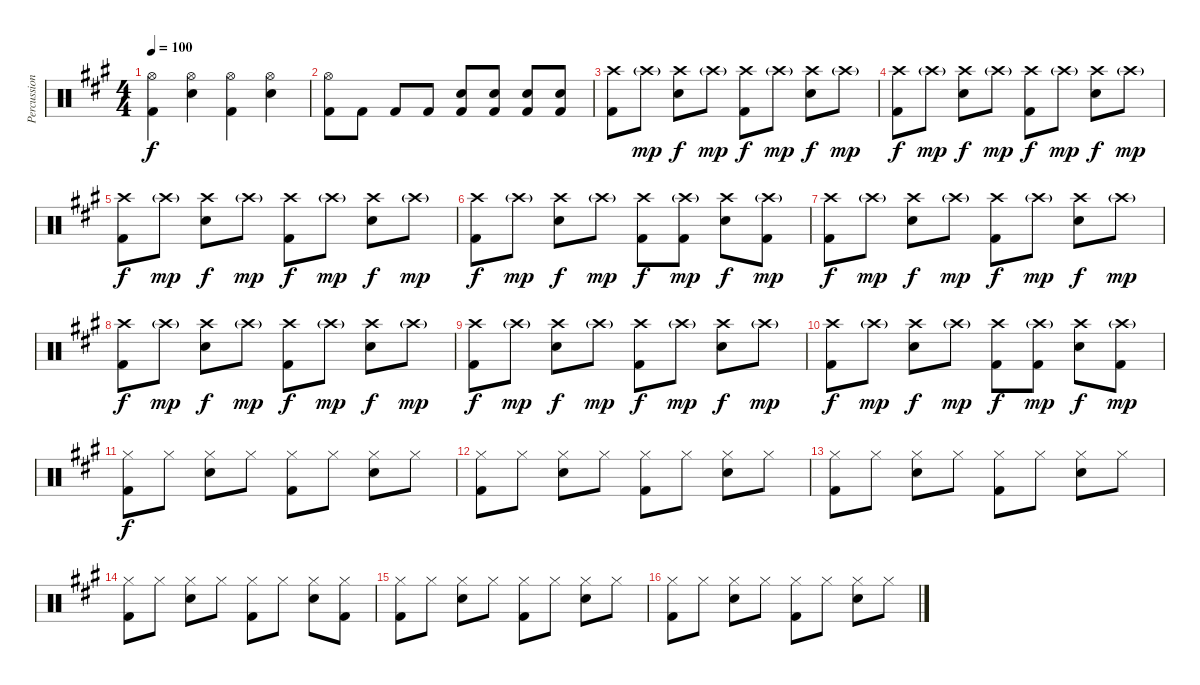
\track ("Percussion" "Percussion") {instrument percussion}
\staff {score}
\articulation defaults
\ts (4 4)
\tempo 100
\clef neutral
\ks a
("Hi-Hat (open)" "Kick (hit) 2").4{dy f} ("Hi-Hat (open)" "Snare (hit) 2").4 ("Hi-Hat (open)" "Kick (hit) 2").4 ("Hi-Hat (open)" "Snare (hit) 2").4 |
("Hi-Hat (open)" "Kick (hit) 2").8 "Kick (hit) 2".8 "Kick (hit) 2".8 "Kick (hit) 2".8 ("Snare (hit) 2" "Kick (hit) 2").8 ("Snare (hit) 2" "Kick (hit) 2").8 ("Snare (hit) 2" "Kick (hit) 2").8 ("Snare (hit) 2" "Kick (hit) 2").8 |
("Crash high (hit)" "Kick (hit) 2").8 "Crash high (hit)"{g}.8{dy mp} ("Crash high (hit)" "Snare (hit) 2").8{dy f} "Crash high (hit)"{g}.8{dy mp} ("Crash high (hit)" "Kick (hit) 2").8{dy f} "Crash high (hit)"{g}.8{dy mp} ("Crash high (hit)" "Snare (hit) 2").8{dy f} "Crash high (hit)"{g}.8{dy mp} |
("Crash high (hit)" "Kick (hit) 2").8{dy f} "Crash high (hit)"{g}.8{dy mp} ("Crash high (hit)" "Snare (hit) 2").8{dy f} "Crash high (hit)"{g}.8{dy mp} ("Crash high (hit)" "Kick (hit) 2").8{dy f} "Crash high (hit)"{g}.8{dy mp} ("Crash high (hit)" "Snare (hit) 2").8{dy f} "Crash high (hit)"{g}.8{dy mp} |
("Crash high (hit)" "Kick (hit) 2").8{dy f} "Crash high (hit)"{g}.8{dy mp} ("Crash high (hit)" "Snare (hit) 2").8{dy f} "Crash high (hit)"{g}.8{dy mp} ("Crash high (hit)" "Kick (hit) 2").8{dy f} "Crash high (hit)"{g}.8{dy mp} ("Crash high (hit)" "Snare (hit) 2").8{dy f} "Crash high (hit)"{g}.8{dy mp} |
("Crash high (hit)" "Kick (hit) 2").8{dy f} "Crash high (hit)"{g}.8{dy mp} ("Crash high (hit)" "Snare (hit) 2").8{dy f} "Crash high (hit)"{g}.8{dy mp} ("Crash high (hit)" "Kick (hit) 2").8{dy f} ("Crash high (hit)"{g} "Kick (hit) 2").8{dy mp} ("Crash high (hit)" "Snare (hit) 2").8{dy f} ("Crash high (hit)"{g} "Kick (hit) 2").8{dy mp} |
("Crash high (hit)" "Kick (hit) 2").8{dy f} "Crash high (hit)"{g}.8{dy mp} ("Crash high (hit)" "Snare (hit) 2").8{dy f} "Crash high (hit)"{g}.8{dy mp} ("Crash high (hit)" "Kick (hit) 2").8{dy f} "Crash high (hit)"{g}.8{dy mp} ("Crash high (hit)" "Snare (hit) 2").8{dy f} "Crash high (hit)"{g}.8{dy mp} |
("Crash high (hit)" "Kick (hit) 2").8{dy f} "Crash high (hit)"{g}.8{dy mp} ("Crash high (hit)" "Snare (hit) 2").8{dy f} "Crash high (hit)"{g}.8{dy mp} ("Crash high (hit)" "Kick (hit) 2").8{dy f} "Crash high (hit)"{g}.8{dy mp} ("Crash high (hit)" "Snare (hit) 2").8{dy f} "Crash high (hit)"{g}.8{dy mp} |
("Crash high (hit)" "Kick (hit) 2").8{dy f} "Crash high (hit)"{g}.8{dy mp} ("Crash high (hit)" "Snare (hit) 2").8{dy f} "Crash high (hit)"{g}.8{dy mp} ("Crash high (hit)" "Kick (hit) 2").8{dy f} "Crash high (hit)"{g}.8{dy mp} ("Crash high (hit)" "Snare (hit) 2").8{dy f} "Crash high (hit)"{g}.8{dy mp} |
("Crash high (hit)" "Kick (hit) 2").8{dy f} "Crash high (hit)"{g}.8{dy mp} ("Crash high (hit)" "Snare (hit) 2").8{dy f} "Crash high (hit)"{g}.8{dy mp} ("Crash high (hit)" "Kick (hit) 2").8{dy f} ("Crash high (hit)"{g} "Kick (hit) 2").8{dy mp} ("Crash high (hit)" "Snare (hit) 2").8{dy f} ("Crash high (hit)"{g} "Kick (hit) 2").8{dy mp} |
("Hi-Hat (closed)" "Kick (hit) 2").8{dy f} "Hi-Hat (closed)".8 ("Hi-Hat (closed)" "Snare (hit) 2").8 "Hi-Hat (closed)".8 ("Hi-Hat (closed)" "Kick (hit) 2").8 "Hi-Hat (closed)".8 ("Hi-Hat (closed)" "Snare (hit) 2").8 "Hi-Hat (closed)".8 |
("Hi-Hat (closed)" "Kick (hit) 2").8 "Hi-Hat (closed)".8 ("Hi-Hat (closed)" "Snare (hit) 2").8 "Hi-Hat (closed)".8 ("Hi-Hat (closed)" "Kick (hit) 2").8 "Hi-Hat (closed)".8 ("Hi-Hat (closed)" "Snare (hit) 2").8 "Hi-Hat (closed)".8 |
("Hi-Hat (closed)" "Kick (hit) 2").8 "Hi-Hat (closed)".8 ("Hi-Hat (closed)" "Snare (hit) 2").8 "Hi-Hat (closed)".8 ("Hi-Hat (closed)" "Kick (hit) 2").8 "Hi-Hat (closed)".8 ("Hi-Hat (closed)" "Snare (hit) 2").8 "Hi-Hat (closed)".8 |
("Hi-Hat (closed)" "Kick (hit) 2").8 "Hi-Hat (closed)".8 ("Hi-Hat (closed)" "Snare (hit) 2").8 "Hi-Hat (closed)".8 ("Hi-Hat (closed)" "Kick (hit) 2").8 "Hi-Hat (closed)".8 ("Hi-Hat (closed)" "Snare (hit) 2").8 ("Hi-Hat (closed)" "Kick (hit) 2").8 |
("Hi-Hat (closed)" "Kick (hit) 2").8 "Hi-Hat (closed)".8 ("Hi-Hat (closed)" "Snare (hit) 2").8 "Hi-Hat (closed)".8 ("Hi-Hat (closed)" "Kick (hit) 2").8 "Hi-Hat (closed)".8 ("Hi-Hat (closed)" "Snare (hit) 2").8 "Hi-Hat (closed)".8 |
("Hi-Hat (closed)" "Kick (hit) 2").8 "Hi-Hat (closed)".8 ("Hi-Hat (closed)" "Snare (hit) 2").8 "Hi-Hat (closed)".8 ("Hi-Hat (closed)" "Kick (hit) 2").8 "Hi-Hat (closed)".8 ("Hi-Hat (closed)" "Snare (hit) 2").8 "Hi-Hat (closed)".8
